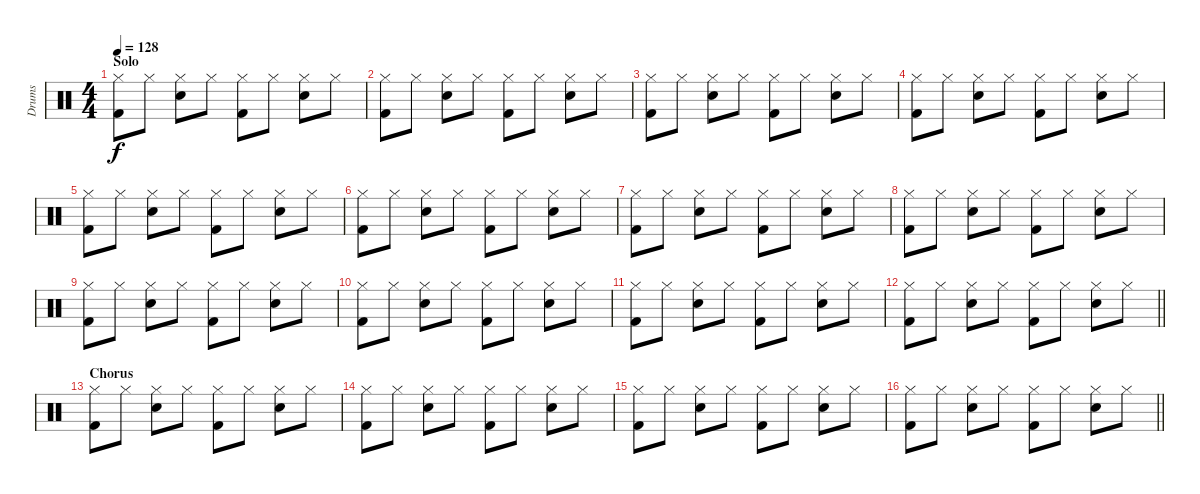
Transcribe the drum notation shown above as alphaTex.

\track ("Drums" "Drums") {instrument percussion}
\staff {score}
\articulation defaults
\ts (4 4)
\section ("" "Solo")
\tempo 128
\clef neutral
\ks c
("Hi-Hat (closed)" "Kick (hit) 2").8{dy f} "Hi-Hat (closed)".8 ("Hi-Hat (closed)" "Electric Snare (hit)").8 "Hi-Hat (closed)".8 ("Hi-Hat (closed)" "Kick (hit) 2").8 "Hi-Hat (closed)".8 ("Hi-Hat (closed)" "Electric Snare (hit)").8 "Hi-Hat (closed)".8 |
("Hi-Hat (closed)" "Kick (hit) 2").8 "Hi-Hat (closed)".8 ("Hi-Hat (closed)" "Electric Snare (hit)").8 "Hi-Hat (closed)".8 ("Hi-Hat (closed)" "Kick (hit) 2").8 "Hi-Hat (closed)".8 ("Hi-Hat (closed)" "Electric Snare (hit)").8 "Hi-Hat (closed)".8 |
("Hi-Hat (closed)" "Kick (hit) 2").8 "Hi-Hat (closed)".8 ("Hi-Hat (closed)" "Electric Snare (hit)").8 "Hi-Hat (closed)".8 ("Hi-Hat (closed)" "Kick (hit) 2").8 "Hi-Hat (closed)".8 ("Hi-Hat (closed)" "Electric Snare (hit)").8 "Hi-Hat (closed)".8 |
("Hi-Hat (closed)" "Kick (hit) 2").8 "Hi-Hat (closed)".8 ("Hi-Hat (closed)" "Electric Snare (hit)").8 "Hi-Hat (closed)".8 ("Hi-Hat (closed)" "Kick (hit) 2").8 "Hi-Hat (closed)".8 ("Hi-Hat (closed)" "Electric Snare (hit)").8 "Hi-Hat (closed)".8 |
("Hi-Hat (closed)" "Kick (hit) 2").8 "Hi-Hat (closed)".8 ("Hi-Hat (closed)" "Electric Snare (hit)").8 "Hi-Hat (closed)".8 ("Hi-Hat (closed)" "Kick (hit) 2").8 "Hi-Hat (closed)".8 ("Hi-Hat (closed)" "Electric Snare (hit)").8 "Hi-Hat (closed)".8 |
("Hi-Hat (closed)" "Kick (hit) 2").8 "Hi-Hat (closed)".8 ("Hi-Hat (closed)" "Electric Snare (hit)").8 "Hi-Hat (closed)".8 ("Hi-Hat (closed)" "Kick (hit) 2").8 "Hi-Hat (closed)".8 ("Hi-Hat (closed)" "Electric Snare (hit)").8 "Hi-Hat (closed)".8 |
("Hi-Hat (closed)" "Kick (hit) 2").8 "Hi-Hat (closed)".8 ("Hi-Hat (closed)" "Electric Snare (hit)").8 "Hi-Hat (closed)".8 ("Hi-Hat (closed)" "Kick (hit) 2").8 "Hi-Hat (closed)".8 ("Hi-Hat (closed)" "Electric Snare (hit)").8 "Hi-Hat (closed)".8 |
("Hi-Hat (closed)" "Kick (hit) 2").8 "Hi-Hat (closed)".8 ("Hi-Hat (closed)" "Electric Snare (hit)").8 "Hi-Hat (closed)".8 ("Hi-Hat (closed)" "Kick (hit) 2").8 "Hi-Hat (closed)".8 ("Hi-Hat (closed)" "Electric Snare (hit)").8 "Hi-Hat (closed)".8 |
("Hi-Hat (closed)" "Kick (hit) 2").8 "Hi-Hat (closed)".8 ("Hi-Hat (closed)" "Electric Snare (hit)").8 "Hi-Hat (closed)".8 ("Hi-Hat (closed)" "Kick (hit) 2").8 "Hi-Hat (closed)".8 ("Hi-Hat (closed)" "Electric Snare (hit)").8 "Hi-Hat (closed)".8 |
("Hi-Hat (closed)" "Kick (hit) 2").8 "Hi-Hat (closed)".8 ("Hi-Hat (closed)" "Electric Snare (hit)").8 "Hi-Hat (closed)".8 ("Hi-Hat (closed)" "Kick (hit) 2").8 "Hi-Hat (closed)".8 ("Hi-Hat (closed)" "Electric Snare (hit)").8 "Hi-Hat (closed)".8 |
("Hi-Hat (closed)" "Kick (hit) 2").8 "Hi-Hat (closed)".8 ("Hi-Hat (closed)" "Electric Snare (hit)").8 "Hi-Hat (closed)".8 ("Hi-Hat (closed)" "Kick (hit) 2").8 "Hi-Hat (closed)".8 ("Hi-Hat (closed)" "Electric Snare (hit)").8 "Hi-Hat (closed)".8 |
\barLineRight lightlight
("Hi-Hat (closed)" "Kick (hit) 2").8 "Hi-Hat (closed)".8 ("Hi-Hat (closed)" "Electric Snare (hit)").8 "Hi-Hat (closed)".8 ("Hi-Hat (closed)" "Kick (hit) 2").8 "Hi-Hat (closed)".8 ("Hi-Hat (closed)" "Electric Snare (hit)").8 "Hi-Hat (closed)".8 |
\section ("" "Chorus")
("Hi-Hat (closed)" "Kick (hit) 2").8 "Hi-Hat (closed)".8 ("Hi-Hat (closed)" "Electric Snare (hit)").8 "Hi-Hat (closed)".8 ("Hi-Hat (closed)" "Kick (hit) 2").8 "Hi-Hat (closed)".8 ("Hi-Hat (closed)" "Electric Snare (hit)").8 "Hi-Hat (closed)".8 |
("Hi-Hat (closed)" "Kick (hit) 2").8 "Hi-Hat (closed)".8 ("Hi-Hat (closed)" "Electric Snare (hit)").8 "Hi-Hat (closed)".8 ("Hi-Hat (closed)" "Kick (hit) 2").8 "Hi-Hat (closed)".8 ("Hi-Hat (closed)" "Electric Snare (hit)").8 "Hi-Hat (closed)".8 |
("Hi-Hat (closed)" "Kick (hit) 2").8 "Hi-Hat (closed)".8 ("Hi-Hat (closed)" "Electric Snare (hit)").8 "Hi-Hat (closed)".8 ("Hi-Hat (closed)" "Kick (hit) 2").8 "Hi-Hat (closed)".8 ("Hi-Hat (closed)" "Electric Snare (hit)").8 "Hi-Hat (closed)".8 |
\barLineRight lightlight
("Hi-Hat (closed)" "Kick (hit) 2").8 "Hi-Hat (closed)".8 ("Hi-Hat (closed)" "Electric Snare (hit)").8 "Hi-Hat (closed)".8 ("Hi-Hat (closed)" "Kick (hit) 2").8 "Hi-Hat (closed)".8 ("Hi-Hat (closed)" "Electric Snare (hit)").8 "Hi-Hat (closed)".8
